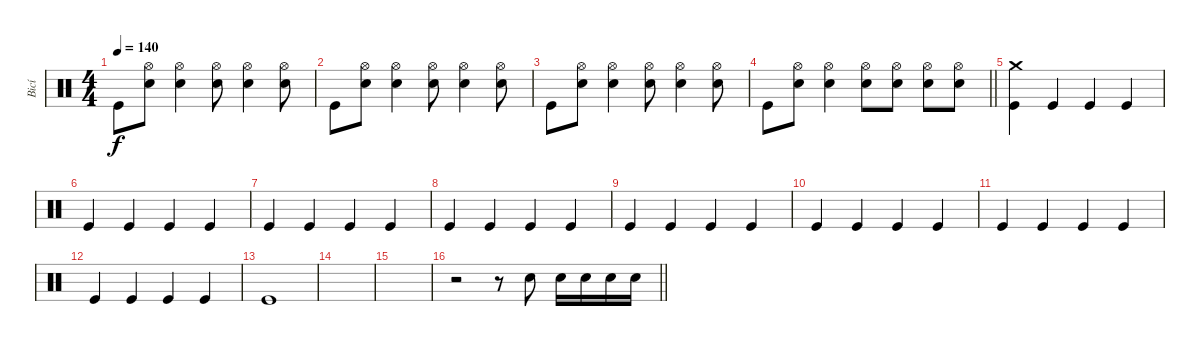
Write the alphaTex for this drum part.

\track ("Bicí" "Bicí") {instrument percussion}
\staff {score}
\articulation defaults
\ts (4 4)
\tempo 140
\clef neutral
\ks c "Kick (hit)".8{dy f}
("Hi-Hat (open)" "Electric Snare (hit)").8 ("Hi-Hat (open)" "Electric Snare (hit)").4 ("Hi-Hat (open)" "Electric Snare (hit)").8 ("Hi-Hat (open)" "Electric Snare (hit)").4 ("Hi-Hat (open)" "Electric Snare (hit)").8 |
"Kick (hit)".8 ("Hi-Hat (open)" "Electric Snare (hit)").8 ("Hi-Hat (open)" "Electric Snare (hit)").4 ("Hi-Hat (open)" "Electric Snare (hit)").8 ("Hi-Hat (open)" "Electric Snare (hit)").4 ("Hi-Hat (open)" "Electric Snare (hit)").8 |
"Kick (hit)".8 ("Hi-Hat (open)" "Electric Snare (hit)").8 ("Hi-Hat (open)" "Electric Snare (hit)").4 ("Hi-Hat (open)" "Electric Snare (hit)").8 ("Hi-Hat (open)" "Electric Snare (hit)").4 ("Hi-Hat (open)" "Electric Snare (hit)").8 |
\barLineRight lightlight "Kick (hit)".8
("Hi-Hat (open)" "Electric Snare (hit)").8 ("Hi-Hat (open)" "Electric Snare (hit)").4 ("Hi-Hat (open)" "Electric Snare (hit)").8 ("Hi-Hat (open)" "Electric Snare (hit)").8 ("Hi-Hat (open)" "Electric Snare (hit)").8 ("Hi-Hat (open)" "Electric Snare (hit)").8 |
("Crash medium (hit)" "Kick (hit)").4 "Kick (hit)".4 "Kick (hit)".4 "Kick (hit)".4 |
"Kick (hit)".4 "Kick (hit)".4 "Kick (hit)".4 "Kick (hit)".4 |
"Kick (hit)".4 "Kick (hit)".4 "Kick (hit)".4 "Kick (hit)".4 |
"Kick (hit)".4 "Kick (hit)".4 "Kick (hit)".4 "Kick (hit)".4 |
"Kick (hit)".4 "Kick (hit)".4 "Kick (hit)".4 "Kick (hit)".4 |
"Kick (hit)".4 "Kick (hit)".4 "Kick (hit)".4 "Kick (hit)".4 |
"Kick (hit)".4 "Kick (hit)".4 "Kick (hit)".4 "Kick (hit)".4 |
"Kick (hit)".4 "Kick (hit)".4 "Kick (hit)".4 "Kick (hit)".4 |
"Kick (hit)".1 |
|
|
\barLineRight lightlight
r.2 r.8 "Electric Snare (hit)".8 "Electric Snare (hit)".16 "Electric Snare (hit)".16 "Electric Snare (hit)".16 "Electric Snare (hit)".16
